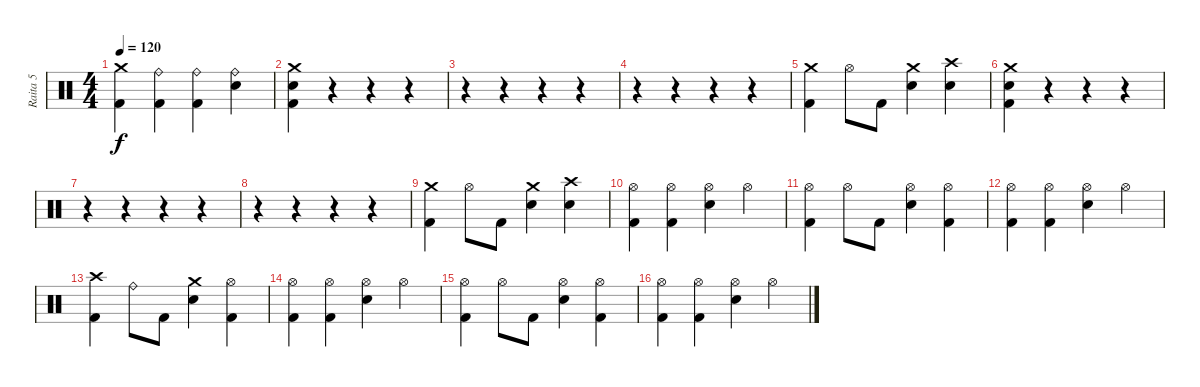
\track ("Raita 5" "Raita 5") {instrument percussion}
\staff {score}
\articulation defaults
\ts (4 4)
\tempo 120
\clef neutral
\ks c
("Crash medium (hit)" "Kick (hit) 2").4{dy f} ("Ride (bell)" "Kick (hit) 2").4 ("Ride (bell)" "Kick (hit) 2").4 ("Ride (bell)" "Snare (hit) 2").4 |
("Crash medium (hit)" "Snare (hit) 2" "Kick (hit) 2").4 r.4 r.4 r.4 |
r.4 r.4 r.4 r.4 |
r.4 r.4 r.4 r.4 |
("Crash medium (hit)" "Kick (hit) 2").4 "Hi-Hat (open)".8 "Kick (hit) 2".8 ("Crash medium (hit)" "Snare (hit) 2").4 ("Crash high (hit)" "Snare (hit) 2").4 |
("Crash medium (hit)" "Snare (hit) 2" "Kick (hit) 2").4 r.4 r.4 r.4 |
r.4 r.4 r.4 r.4 |
r.4 r.4 r.4 r.4 |
("Crash medium (hit)" "Kick (hit) 2").4 "Hi-Hat (open)".8 "Kick (hit) 2".8 ("Crash medium (hit)" "Snare (hit) 2").4 ("Crash high (hit)" "Snare (hit) 2").4 |
("Hi-Hat (open)" "Kick (hit) 2").4 ("Hi-Hat (open)" "Kick (hit) 2").4 ("Hi-Hat (open)" "Snare (hit) 2").4 "Hi-Hat (open)".4 |
("Hi-Hat (open)" "Kick (hit) 2").4 "Hi-Hat (open)".8 "Kick (hit) 2".8 ("Hi-Hat (open)" "Snare (hit) 2").4 ("Hi-Hat (open)" "Kick (hit) 2").4 |
("Hi-Hat (open)" "Kick (hit) 2").4 ("Hi-Hat (open)" "Kick (hit) 2").4 ("Hi-Hat (open)" "Snare (hit) 2").4 "Hi-Hat (open)".4 |
("Crash high (hit)" "Kick (hit) 2").4 "Ride (bell)".8 "Kick (hit) 2".8 ("Crash medium (hit)" "Snare (hit) 2").4 ("Hi-Hat (open)" "Kick (hit) 2").4 |
("Hi-Hat (open)" "Kick (hit) 2").4 ("Hi-Hat (open)" "Kick (hit) 2").4 ("Hi-Hat (open)" "Snare (hit) 2").4 "Hi-Hat (open)".4 |
("Hi-Hat (open)" "Kick (hit) 2").4 "Hi-Hat (open)".8 "Kick (hit) 2".8 ("Hi-Hat (open)" "Snare (hit) 2").4 ("Hi-Hat (open)" "Kick (hit) 2").4 |
("Hi-Hat (open)" "Kick (hit) 2").4 ("Hi-Hat (open)" "Kick (hit) 2").4 ("Hi-Hat (open)" "Snare (hit) 2").4 "Hi-Hat (open)".4
